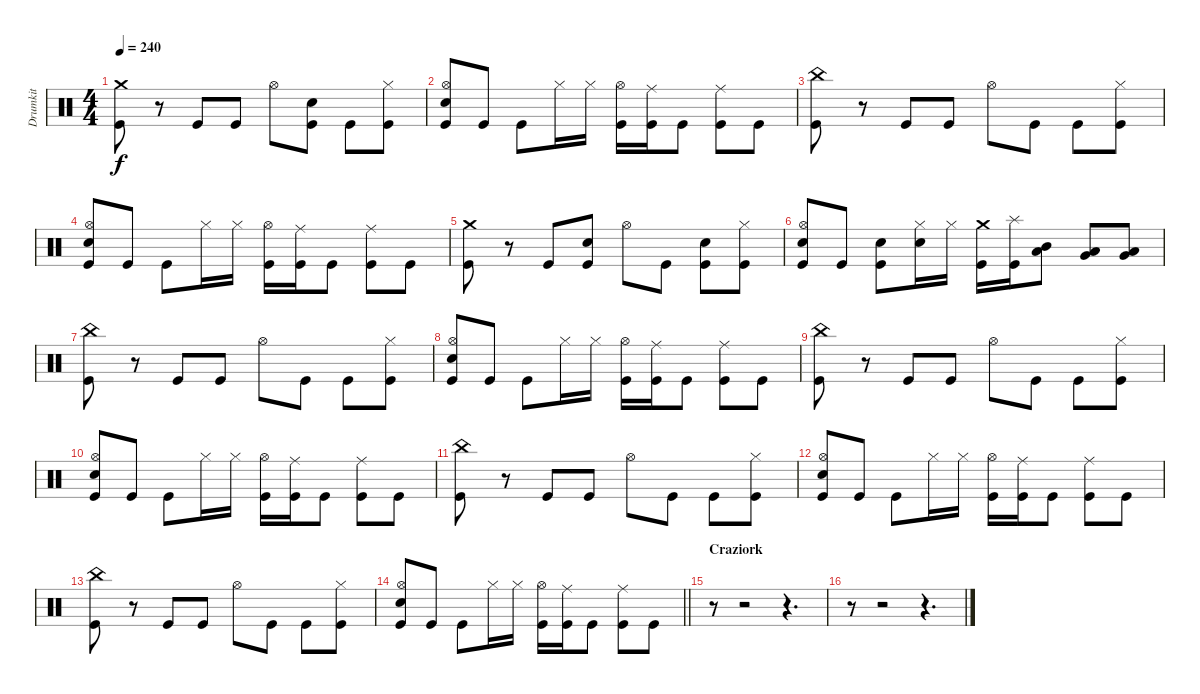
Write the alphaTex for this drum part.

\track ("Drumkit" "Drumkit") {instrument percussion}
\staff {score}
\articulation defaults
\ts (4 4)
\tempo 240
\clef neutral
\ks c
("Crash medium (hit)" "Kick (hit)").8{dy f} r.8 "Kick (hit)".8 "Kick (hit)".8 "Hi-Hat (open)".8 ("Snare (hit) 2" "Kick (hit)").8 "Kick (hit)".8 ("Hi-Hat (closed)" "Kick (hit)").8 |
("Hi-Hat (open)" "Snare (hit) 2" "Kick (hit)").8 "Kick (hit)".8 "Kick (hit)".8 "Hi-Hat (closed)".16 "Hi-Hat (closed)".16 ("Hi-Hat (open)" "Kick (hit)").16 ("Ride (middle)" "Kick (hit)").16 "Kick (hit)".8 ("Ride (middle)" "Kick (hit)").8 "Kick (hit)".8 |
("China (hit)" "Kick (hit)").8 r.8 "Kick (hit)".8 "Kick (hit)".8 "Hi-Hat (open)".8 "Kick (hit)".8 "Kick (hit)".8 ("Hi-Hat (closed)" "Kick (hit)").8 |
("Hi-Hat (open)" "Snare (hit) 2" "Kick (hit)").8 "Kick (hit)".8 "Kick (hit)".8 "Hi-Hat (closed)".16 "Hi-Hat (closed)".16 ("Hi-Hat (open)" "Kick (hit)").16 ("Ride (middle)" "Kick (hit)").16 "Kick (hit)".8 ("Ride (middle)" "Kick (hit)").8 "Kick (hit)".8 |
("Crash medium (hit)" "Kick (hit)").8 r.8 "Kick (hit)".8 ("Snare (hit) 2" "Kick (hit)").8 "Hi-Hat (open)".8 "Kick (hit)".8 ("Snare (hit) 2" "Kick (hit)").8 ("Hi-Hat (closed)" "Kick (hit)").8 |
("Hi-Hat (open)" "Snare (hit) 2" "Kick (hit)").8 "Kick (hit)".8 ("Snare (hit) 2" "Kick (hit)").8 ("Hi-Hat (closed)" "Snare (hit) 2").16 "Hi-Hat (closed)".16 ("Crash medium (hit)" "Kick (hit)").16 ("Splash (hit)" "Kick (hit)").16 ("Mid Tom (hit)" "Low Tom (hit)").8 ("Low Tom (hit)" "Very Low Tom (hit)").8 ("Very Low Tom (hit)" "Low Floor Tom (hit)").8 |
("China (hit)" "Kick (hit)").8 r.8 "Kick (hit)".8 "Kick (hit)".8 "Hi-Hat (open)".8 "Kick (hit)".8 "Kick (hit)".8 ("Hi-Hat (closed)" "Kick (hit)").8 |
("Hi-Hat (open)" "Snare (hit) 2" "Kick (hit)").8 "Kick (hit)".8 "Kick (hit)".8 "Hi-Hat (closed)".16 "Hi-Hat (closed)".16 ("Hi-Hat (open)" "Kick (hit)").16 ("Ride (middle)" "Kick (hit)").16 "Kick (hit)".8 ("Ride (middle)" "Kick (hit)").8 "Kick (hit)".8 |
("China (hit)" "Kick (hit)").8 r.8 "Kick (hit)".8 "Kick (hit)".8 "Hi-Hat (open)".8 "Kick (hit)".8 "Kick (hit)".8 ("Hi-Hat (closed)" "Kick (hit)").8 |
("Hi-Hat (open)" "Snare (hit) 2" "Kick (hit)").8 "Kick (hit)".8 "Kick (hit)".8 "Hi-Hat (closed)".16 "Hi-Hat (closed)".16 ("Hi-Hat (open)" "Kick (hit)").16 ("Ride (middle)" "Kick (hit)").16 "Kick (hit)".8 ("Ride (middle)" "Kick (hit)").8 "Kick (hit)".8 |
("China (hit)" "Kick (hit)").8 r.8 "Kick (hit)".8 "Kick (hit)".8 "Hi-Hat (open)".8 "Kick (hit)".8 "Kick (hit)".8 ("Hi-Hat (closed)" "Kick (hit)").8 |
("Hi-Hat (open)" "Snare (hit) 2" "Kick (hit)").8 "Kick (hit)".8 "Kick (hit)".8 "Hi-Hat (closed)".16 "Hi-Hat (closed)".16 ("Hi-Hat (open)" "Kick (hit)").16 ("Ride (middle)" "Kick (hit)").16 "Kick (hit)".8 ("Ride (middle)" "Kick (hit)").8 "Kick (hit)".8 |
("China (hit)" "Kick (hit)").8 r.8 "Kick (hit)".8 "Kick (hit)".8 "Hi-Hat (open)".8 "Kick (hit)".8 "Kick (hit)".8 ("Hi-Hat (closed)" "Kick (hit)").8 |
\barLineRight lightlight
("Hi-Hat (open)" "Snare (hit) 2" "Kick (hit)").8 "Kick (hit)".8 "Kick (hit)".8 "Hi-Hat (closed)".16 "Hi-Hat (closed)".16 ("Hi-Hat (open)" "Kick (hit)").16 ("Ride (middle)" "Kick (hit)").16 "Kick (hit)".8 ("Ride (middle)" "Kick (hit)").8 "Kick (hit)".8 |
\section ("" "Craziork")
r.8 r.2 r.4{d} |
r.8 r.2 r.4{d}
